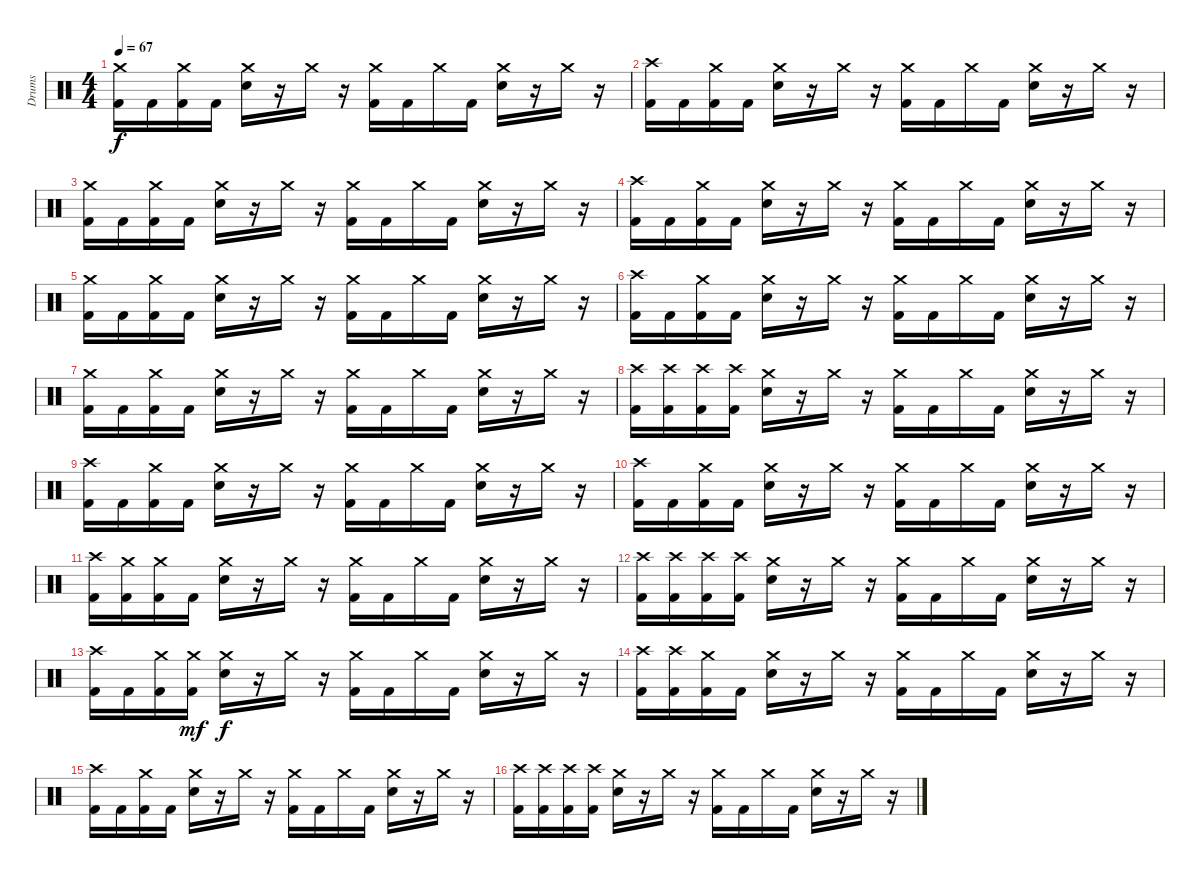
\track ("Drums" "Drums") {instrument percussion}
\staff {score}
\articulation defaults
\ts (4 4)
\tempo 67
\clef neutral
\ks c
("Crash medium (hit)" "Kick (hit) 2").16{dy f} "Kick (hit) 2".16 ("Crash medium (hit)" "Kick (hit) 2").16 "Kick (hit) 2".16 ("Crash medium (hit)" "Electric Snare (hit)").16 r.16 "Crash medium (hit)".16 r.16 ("Crash medium (hit)" "Kick (hit) 2").16 "Kick (hit) 2".16 "Crash medium (hit)".16 "Kick (hit) 2".16 ("Crash medium (hit)" "Electric Snare (hit)").16 r.16 "Crash medium (hit)".16 r.16 |
("Crash high (hit)" "Kick (hit) 2").16 "Kick (hit) 2".16 ("Crash medium (hit)" "Kick (hit) 2").16 "Kick (hit) 2".16 ("Crash medium (hit)" "Electric Snare (hit)").16 r.16 "Crash medium (hit)".16 r.16 ("Crash medium (hit)" "Kick (hit) 2").16 "Kick (hit) 2".16 "Crash medium (hit)".16 "Kick (hit) 2".16 ("Crash medium (hit)" "Electric Snare (hit)").16 r.16 "Crash medium (hit)".16 r.16 |
("Crash medium (hit)" "Kick (hit) 2").16 "Kick (hit) 2".16 ("Crash medium (hit)" "Kick (hit) 2").16 "Kick (hit) 2".16 ("Crash medium (hit)" "Electric Snare (hit)").16 r.16 "Crash medium (hit)".16 r.16 ("Crash medium (hit)" "Kick (hit) 2").16 "Kick (hit) 2".16 "Crash medium (hit)".16 "Kick (hit) 2".16 ("Crash medium (hit)" "Electric Snare (hit)").16 r.16 "Crash medium (hit)".16 r.16 |
("Crash high (hit)" "Kick (hit) 2").16 "Kick (hit) 2".16 ("Crash medium (hit)" "Kick (hit) 2").16 "Kick (hit) 2".16 ("Crash medium (hit)" "Electric Snare (hit)").16 r.16 "Crash medium (hit)".16 r.16 ("Crash medium (hit)" "Kick (hit) 2").16 "Kick (hit) 2".16 "Crash medium (hit)".16 "Kick (hit) 2".16 ("Crash medium (hit)" "Electric Snare (hit)").16 r.16 "Crash medium (hit)".16 r.16 |
("Crash medium (hit)" "Kick (hit) 2").16 "Kick (hit) 2".16 ("Crash medium (hit)" "Kick (hit) 2").16 "Kick (hit) 2".16 ("Crash medium (hit)" "Electric Snare (hit)").16 r.16 "Crash medium (hit)".16 r.16 ("Crash medium (hit)" "Kick (hit) 2").16 "Kick (hit) 2".16 "Crash medium (hit)".16 "Kick (hit) 2".16 ("Crash medium (hit)" "Electric Snare (hit)").16 r.16 "Crash medium (hit)".16 r.16 |
("Crash high (hit)" "Kick (hit) 2").16 "Kick (hit) 2".16 ("Crash medium (hit)" "Kick (hit) 2").16 "Kick (hit) 2".16 ("Crash medium (hit)" "Electric Snare (hit)").16 r.16 "Crash medium (hit)".16 r.16 ("Crash medium (hit)" "Kick (hit) 2").16 "Kick (hit) 2".16 "Crash medium (hit)".16 "Kick (hit) 2".16 ("Crash medium (hit)" "Electric Snare (hit)").16 r.16 "Crash medium (hit)".16 r.16 |
("Crash medium (hit)" "Kick (hit) 2").16 "Kick (hit) 2".16 ("Crash medium (hit)" "Kick (hit) 2").16 "Kick (hit) 2".16 ("Crash medium (hit)" "Electric Snare (hit)").16 r.16 "Crash medium (hit)".16 r.16 ("Crash medium (hit)" "Kick (hit) 2").16 "Kick (hit) 2".16 "Crash medium (hit)".16 "Kick (hit) 2".16 ("Crash medium (hit)" "Electric Snare (hit)").16 r.16 "Crash medium (hit)".16 r.16 |
("Crash high (hit)" "Kick (hit) 2").16 ("Crash high (hit)" "Kick (hit) 2").16 ("Crash high (hit)" "Kick (hit) 2").16 ("Crash high (hit)" "Kick (hit) 2").16 ("Crash medium (hit)" "Electric Snare (hit)").16 r.16 "Crash medium (hit)".16 r.16 ("Crash medium (hit)" "Kick (hit) 2").16 "Kick (hit) 2".16 "Crash medium (hit)".16 "Kick (hit) 2".16 ("Crash medium (hit)" "Electric Snare (hit)").16 r.16 "Crash medium (hit)".16 r.16 |
("Crash high (hit)" "Kick (hit) 2").16 "Kick (hit) 2".16 ("Crash medium (hit)" "Kick (hit) 2").16 "Kick (hit) 2".16 ("Crash medium (hit)" "Electric Snare (hit)").16 r.16 "Crash medium (hit)".16 r.16 ("Crash medium (hit)" "Kick (hit) 2").16 "Kick (hit) 2".16 "Crash medium (hit)".16 "Kick (hit) 2".16 ("Crash medium (hit)" "Electric Snare (hit)").16 r.16 "Crash medium (hit)".16 r.16 |
("Crash high (hit)" "Kick (hit) 2").16 "Kick (hit) 2".16 ("Crash medium (hit)" "Kick (hit) 2").16 "Kick (hit) 2".16 ("Crash medium (hit)" "Electric Snare (hit)").16 r.16 "Crash medium (hit)".16 r.16 ("Crash medium (hit)" "Kick (hit) 2").16 "Kick (hit) 2".16 "Crash medium (hit)".16 "Kick (hit) 2".16 ("Crash medium (hit)" "Electric Snare (hit)").16 r.16 "Crash medium (hit)".16 r.16 |
("Crash high (hit)" "Kick (hit) 2").16 ("Crash medium (hit)" "Kick (hit) 2").16 ("Crash medium (hit)" "Kick (hit) 2").16 "Kick (hit) 2".16 ("Crash medium (hit)" "Electric Snare (hit)").16 r.16 "Crash medium (hit)".16 r.16 ("Crash medium (hit)" "Kick (hit) 2").16 "Kick (hit) 2".16 "Crash medium (hit)".16 "Kick (hit) 2".16 ("Crash medium (hit)" "Electric Snare (hit)").16 r.16 "Crash medium (hit)".16 r.16 |
("Crash high (hit)" "Kick (hit) 2").16 ("Crash high (hit)" "Kick (hit) 2").16 ("Crash high (hit)" "Kick (hit) 2").16 ("Crash high (hit)" "Kick (hit) 2").16 ("Crash medium (hit)" "Electric Snare (hit)").16 r.16 "Crash medium (hit)".16 r.16 ("Crash medium (hit)" "Kick (hit) 2").16 "Kick (hit) 2".16 "Crash medium (hit)".16 "Kick (hit) 2".16 ("Crash medium (hit)" "Electric Snare (hit)").16 r.16 "Crash medium (hit)".16 r.16 |
("Crash high (hit)" "Kick (hit) 2").16 "Kick (hit) 2".16 ("Crash medium (hit)" "Kick (hit) 2").16 ("Crash medium (hit)" "Kick (hit) 2").16{dy mf} ("Crash medium (hit)" "Electric Snare (hit)").16{dy f} r.16 "Crash medium (hit)".16 r.16 ("Crash medium (hit)" "Kick (hit) 2").16 "Kick (hit) 2".16 "Crash medium (hit)".16 "Kick (hit) 2".16 ("Crash medium (hit)" "Electric Snare (hit)").16 r.16 "Crash medium (hit)".16 r.16 |
("Crash high (hit)" "Kick (hit) 2").16 ("Crash high (hit)" "Kick (hit) 2").16 ("Crash medium (hit)" "Kick (hit) 2").16 "Kick (hit) 2".16 ("Crash medium (hit)" "Electric Snare (hit)").16 r.16 "Crash medium (hit)".16 r.16 ("Crash medium (hit)" "Kick (hit) 2").16 "Kick (hit) 2".16 "Crash medium (hit)".16 "Kick (hit) 2".16 ("Crash medium (hit)" "Electric Snare (hit)").16 r.16 "Crash medium (hit)".16 r.16 |
("Crash high (hit)" "Kick (hit) 2").16 "Kick (hit) 2".16 ("Crash medium (hit)" "Kick (hit) 2").16 "Kick (hit) 2".16 ("Crash medium (hit)" "Electric Snare (hit)").16 r.16 "Crash medium (hit)".16 r.16 ("Crash medium (hit)" "Kick (hit) 2").16 "Kick (hit) 2".16 "Crash medium (hit)".16 "Kick (hit) 2".16 ("Crash medium (hit)" "Electric Snare (hit)").16 r.16 "Crash medium (hit)".16 r.16 |
("Crash high (hit)" "Kick (hit) 2").16 ("Crash high (hit)" "Kick (hit) 2").16 ("Crash high (hit)" "Kick (hit) 2").16 ("Crash high (hit)" "Kick (hit) 2").16 ("Crash medium (hit)" "Electric Snare (hit)").16 r.16 "Crash medium (hit)".16 r.16 ("Crash medium (hit)" "Kick (hit) 2").16 "Kick (hit) 2".16 "Crash medium (hit)".16 "Kick (hit) 2".16 ("Crash medium (hit)" "Electric Snare (hit)").16 r.16 "Crash medium (hit)".16 r.16
